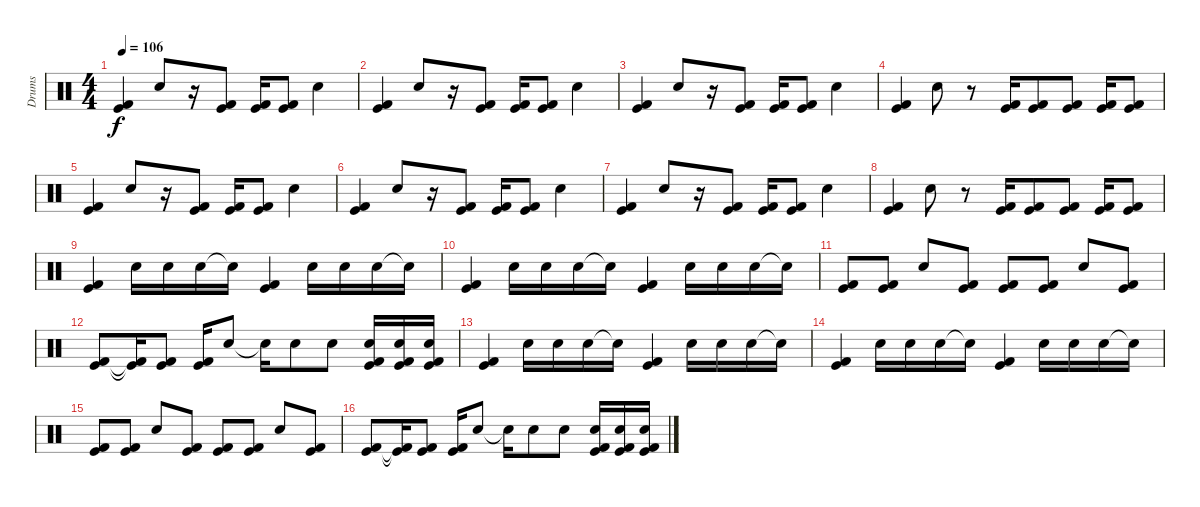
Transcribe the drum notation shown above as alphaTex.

\track ("Drums" "Drums") {instrument percussion}
\staff {score}
\articulation defaults
\ts (4 4)
\tempo 106
\clef neutral
\ks c
("Kick (hit)" "Kick (hit) 2").4{dy f} "Snare (hit) 2".8 r.16 ("Kick (hit)" "Kick (hit) 2").8 ("Kick (hit)" "Kick (hit) 2").16 ("Kick (hit)" "Kick (hit) 2").8 "Snare (hit) 2".4 |
("Kick (hit)" "Kick (hit) 2").4 "Snare (hit) 2".8 r.16 ("Kick (hit)" "Kick (hit) 2").8 ("Kick (hit)" "Kick (hit) 2").16 ("Kick (hit)" "Kick (hit) 2").8 "Snare (hit) 2".4 |
("Kick (hit)" "Kick (hit) 2").4 "Snare (hit) 2".8 r.16 ("Kick (hit)" "Kick (hit) 2").8 ("Kick (hit)" "Kick (hit) 2").16 ("Kick (hit)" "Kick (hit) 2").8 "Snare (hit) 2".4 |
("Kick (hit)" "Kick (hit) 2").4 "Snare (hit) 2".8 r.8 ("Kick (hit)" "Kick (hit) 2").16 ("Kick (hit)" "Kick (hit) 2").8 ("Kick (hit)" "Kick (hit) 2").8 ("Kick (hit)" "Kick (hit) 2").16 ("Kick (hit)" "Kick (hit) 2").8 |
("Kick (hit)" "Kick (hit) 2").4 "Snare (hit) 2".8 r.16 ("Kick (hit)" "Kick (hit) 2").8 ("Kick (hit)" "Kick (hit) 2").16 ("Kick (hit)" "Kick (hit) 2").8 "Snare (hit) 2".4 |
("Kick (hit)" "Kick (hit) 2").4 "Snare (hit) 2".8 r.16 ("Kick (hit)" "Kick (hit) 2").8 ("Kick (hit)" "Kick (hit) 2").16 ("Kick (hit)" "Kick (hit) 2").8 "Snare (hit) 2".4 |
("Kick (hit)" "Kick (hit) 2").4 "Snare (hit) 2".8 r.16 ("Kick (hit)" "Kick (hit) 2").8 ("Kick (hit)" "Kick (hit) 2").16 ("Kick (hit)" "Kick (hit) 2").8 "Snare (hit) 2".4 |
("Kick (hit)" "Kick (hit) 2").4 "Snare (hit) 2".8 r.8 ("Kick (hit)" "Kick (hit) 2").16 ("Kick (hit)" "Kick (hit) 2").8 ("Kick (hit)" "Kick (hit) 2").8 ("Kick (hit)" "Kick (hit) 2").16 ("Kick (hit)" "Kick (hit) 2").8 |
("Kick (hit)" "Kick (hit) 2").4 "Electric Snare (hit)".16 "Electric Snare (hit)".16 "Electric Snare (hit)".16 "Electric Snare (hit)"{t}.16 ("Kick (hit)" "Kick (hit) 2").4 "Electric Snare (hit)".16 "Electric Snare (hit)".16 "Electric Snare (hit)".16 "Electric Snare (hit)"{t}.16 |
("Kick (hit)" "Kick (hit) 2").4 "Electric Snare (hit)".16 "Electric Snare (hit)".16 "Electric Snare (hit)".16 "Electric Snare (hit)"{t}.16 ("Kick (hit)" "Kick (hit) 2").4 "Electric Snare (hit)".16 "Electric Snare (hit)".16 "Electric Snare (hit)".16 "Snare (hit)"{t}.16 |
("Kick (hit)" "Kick (hit) 2").8 ("Kick (hit)" "Kick (hit) 2").8 "Electric Snare (hit)".8 ("Kick (hit)" "Kick (hit) 2").8 ("Kick (hit)" "Kick (hit) 2").8 ("Kick (hit)" "Kick (hit) 2").8 "Electric Snare (hit)".8 ("Kick (hit)" "Kick (hit) 2").8 |
("Kick (hit)" "Kick (hit) 2").8 ("Kick (hit)"{t} "Kick (hit) 2"{t}).16 ("Kick (hit)" "Kick (hit) 2").8 ("Kick (hit)" "Kick (hit) 2").16 "Electric Snare (hit)".8 "Snare (hit)"{t}.16 "Electric Snare (hit)".8 "Electric Snare (hit)".8 ("Kick (hit)" "Kick (hit) 2" "Electric Snare (hit)").16 ("Kick (hit)" "Kick (hit) 2" "Electric Snare (hit)").16 ("Kick (hit)" "Kick (hit) 2" "Electric Snare (hit)").16 |
("Kick (hit)" "Kick (hit) 2").4 "Electric Snare (hit)".16 "Electric Snare (hit)".16 "Electric Snare (hit)".16 "Electric Snare (hit)"{t}.16 ("Kick (hit)" "Kick (hit) 2").4 "Electric Snare (hit)".16 "Electric Snare (hit)".16 "Electric Snare (hit)".16 "Electric Snare (hit)"{t}.16 |
("Kick (hit)" "Kick (hit) 2").4 "Electric Snare (hit)".16 "Electric Snare (hit)".16 "Electric Snare (hit)".16 "Electric Snare (hit)"{t}.16 ("Kick (hit)" "Kick (hit) 2").4 "Electric Snare (hit)".16 "Electric Snare (hit)".16 "Electric Snare (hit)".16 "Snare (hit)"{t}.16 |
("Kick (hit)" "Kick (hit) 2").8 ("Kick (hit)" "Kick (hit) 2").8 "Electric Snare (hit)".8 ("Kick (hit)" "Kick (hit) 2").8 ("Kick (hit)" "Kick (hit) 2").8 ("Kick (hit)" "Kick (hit) 2").8 "Electric Snare (hit)".8 ("Kick (hit)" "Kick (hit) 2").8 |
("Kick (hit)" "Kick (hit) 2").8 ("Kick (hit)"{t} "Kick (hit) 2"{t}).16 ("Kick (hit)" "Kick (hit) 2").8 ("Kick (hit)" "Kick (hit) 2").16 "Electric Snare (hit)".8 "Snare (hit)"{t}.16 "Electric Snare (hit)".8 "Electric Snare (hit)".8 ("Kick (hit)" "Kick (hit) 2" "Electric Snare (hit)").16 ("Kick (hit)" "Kick (hit) 2" "Electric Snare (hit)").16 ("Kick (hit)" "Kick (hit) 2" "Electric Snare (hit)").16
